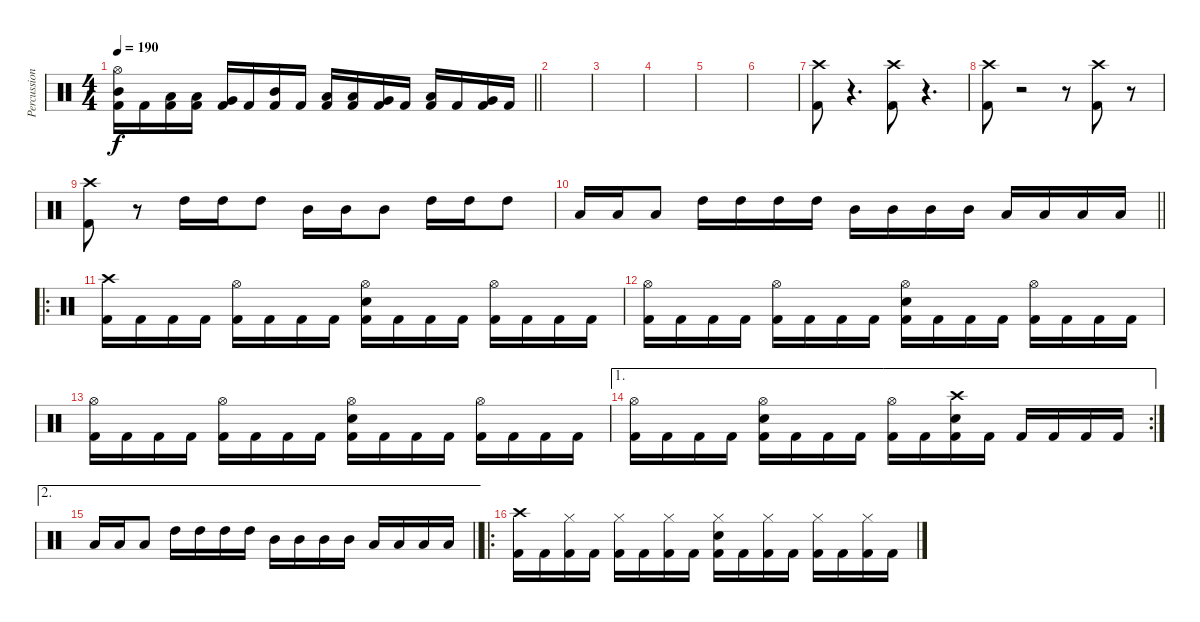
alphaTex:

\track ("Percussion" "Percussion") {instrument percussion}
\staff {score}
\articulation defaults
\ts (4 4)
\tempo 190
\clef neutral
\barLineRight lightlight
\ks c
("Hi-Hat (open)" "Mid Tom (hit)" "Kick (hit) 2").16{dy f} "Kick (hit) 2".16 ("Low Tom (hit)" "Kick (hit) 2").16 ("Low Tom (hit)" "Kick (hit) 2").16 ("Very Low Tom (hit)" "Kick (hit) 2").16 "Kick (hit) 2".16 ("Mid Tom (hit)" "Kick (hit) 2").16 "Kick (hit) 2".16 ("Low Tom (hit)" "Kick (hit) 2").16 ("Low Tom (hit)" "Kick (hit) 2").16 ("Very Low Tom (hit)" "Kick (hit) 2").16 "Kick (hit) 2".16 ("Low Tom (hit)" "Kick (hit) 2").16 "Kick (hit) 2".16 ("Very Low Tom (hit)" "Kick (hit) 2").16 "Kick (hit) 2".16 |
|
\section ("" "")
|
|
|
|
("Crash high (hit)" "Kick (hit) 2").8 r.4{d} ("Crash high (hit)" "Kick (hit) 2").8 r.4{d} |
("Crash high (hit)" "Kick (hit) 2").8 r.2 r.8 ("Crash high (hit)" "Kick (hit) 2").8 r.8 |
("Crash high (hit)" "Kick (hit) 2").8 r.8 "High Tom (hit)".16 "High Tom (hit)".16 "High Tom (hit)".8 "Mid Tom (hit)".16 "Mid Tom (hit)".16 "Mid Tom (hit)".8 "High Tom (hit)".16 "High Tom (hit)".16 "High Tom (hit)".8 |
\barLineRight lightlight "Low Tom (hit)".16 "Low Tom (hit)".16 "Low Tom (hit)".8 "High Tom (hit)".16 "High Tom (hit)".16 "High Tom (hit)".16 "High Tom (hit)".16 "Mid Tom (hit)".16 "Mid Tom (hit)".16 "Mid Tom (hit)".16 "Mid Tom (hit)".16 "Low Tom (hit)".16 "Low Tom (hit)".16 "Low Tom (hit)".16 "Low Tom (hit)".16
|
\ro
\section ("" "")
("Crash high (hit)" "Kick (hit) 2").16 "Kick (hit) 2".16 "Kick (hit) 2".16 "Kick (hit) 2".16 ("Hi-Hat (open)" "Kick (hit) 2").16 "Kick (hit) 2".16 "Kick (hit) 2".16 "Kick (hit) 2".16 ("Hi-Hat (open)" "Snare (hit) 2" "Kick (hit) 2").16 "Kick (hit) 2".16 "Kick (hit) 2".16 "Kick (hit) 2".16 ("Hi-Hat (open)" "Kick (hit) 2").16 "Kick (hit) 2".16 "Kick (hit) 2".16 "Kick (hit) 2".16 |
("Hi-Hat (open)" "Kick (hit) 2").16 "Kick (hit) 2".16 "Kick (hit) 2".16 "Kick (hit) 2".16 ("Hi-Hat (open)" "Kick (hit) 2").16 "Kick (hit) 2".16 "Kick (hit) 2".16 "Kick (hit) 2".16 ("Hi-Hat (open)" "Snare (hit) 2" "Kick (hit) 2").16 "Kick (hit) 2".16 "Kick (hit) 2".16 "Kick (hit) 2".16 ("Hi-Hat (open)" "Kick (hit) 2").16 "Kick (hit) 2".16 "Kick (hit) 2".16 "Kick (hit) 2".16 |
("Hi-Hat (open)" "Kick (hit) 2").16 "Kick (hit) 2".16 "Kick (hit) 2".16 "Kick (hit) 2".16 ("Hi-Hat (open)" "Kick (hit) 2").16 "Kick (hit) 2".16 "Kick (hit) 2".16 "Kick (hit) 2".16 ("Hi-Hat (open)" "Snare (hit) 2" "Kick (hit) 2").16 "Kick (hit) 2".16 "Kick (hit) 2".16 "Kick (hit) 2".16 ("Hi-Hat (open)" "Kick (hit) 2").16 "Kick (hit) 2".16 "Kick (hit) 2".16 "Kick (hit) 2".16 |
\ae 1
\rc 2
("Hi-Hat (open)" "Kick (hit) 2").16 "Kick (hit) 2".16 "Kick (hit) 2".16 "Kick (hit) 2".16 ("Hi-Hat (open)" "Snare (hit) 2" "Kick (hit) 2").16 "Kick (hit) 2".16 "Kick (hit) 2".16 "Kick (hit) 2".16 ("Hi-Hat (open)" "Kick (hit) 2").16 "Kick (hit) 2".16 ("Crash high (hit)" "Snare (hit) 2" "Kick (hit) 2").16 "Kick (hit) 2".16 "Kick (hit) 2".16 "Kick (hit) 2".16 "Kick (hit) 2".16 "Kick (hit) 2".16 |
\ae 2
\barLineRight lightlight "Low Tom (hit)".16 "Low Tom (hit)".16 "Low Tom (hit)".8 "High Tom (hit)".16 "High Tom (hit)".16 "High Tom (hit)".16 "High Tom (hit)".16 "Mid Tom (hit)".16 "Mid Tom (hit)".16 "Mid Tom (hit)".16 "Mid Tom (hit)".16 "Low Tom (hit)".16 "Low Tom (hit)".16 "Low Tom (hit)".16 "Low Tom (hit)".16
|
\ro
("Crash high (hit)" "Kick (hit) 2").16 "Kick (hit) 2".16 ("Hi-Hat (closed)" "Kick (hit) 2").16 "Kick (hit) 2".16 ("Hi-Hat (closed)" "Kick (hit) 2").16 "Kick (hit) 2".16 ("Hi-Hat (closed)" "Kick (hit) 2").16 "Kick (hit) 2".16 ("Hi-Hat (closed)" "Snare (hit) 2" "Kick (hit) 2").16 "Kick (hit) 2".16 ("Hi-Hat (closed)" "Kick (hit) 2").16 "Kick (hit) 2".16 ("Hi-Hat (closed)" "Kick (hit) 2").16 "Kick (hit) 2".16 ("Hi-Hat (closed)" "Kick (hit) 2").16 "Kick (hit) 2".16
